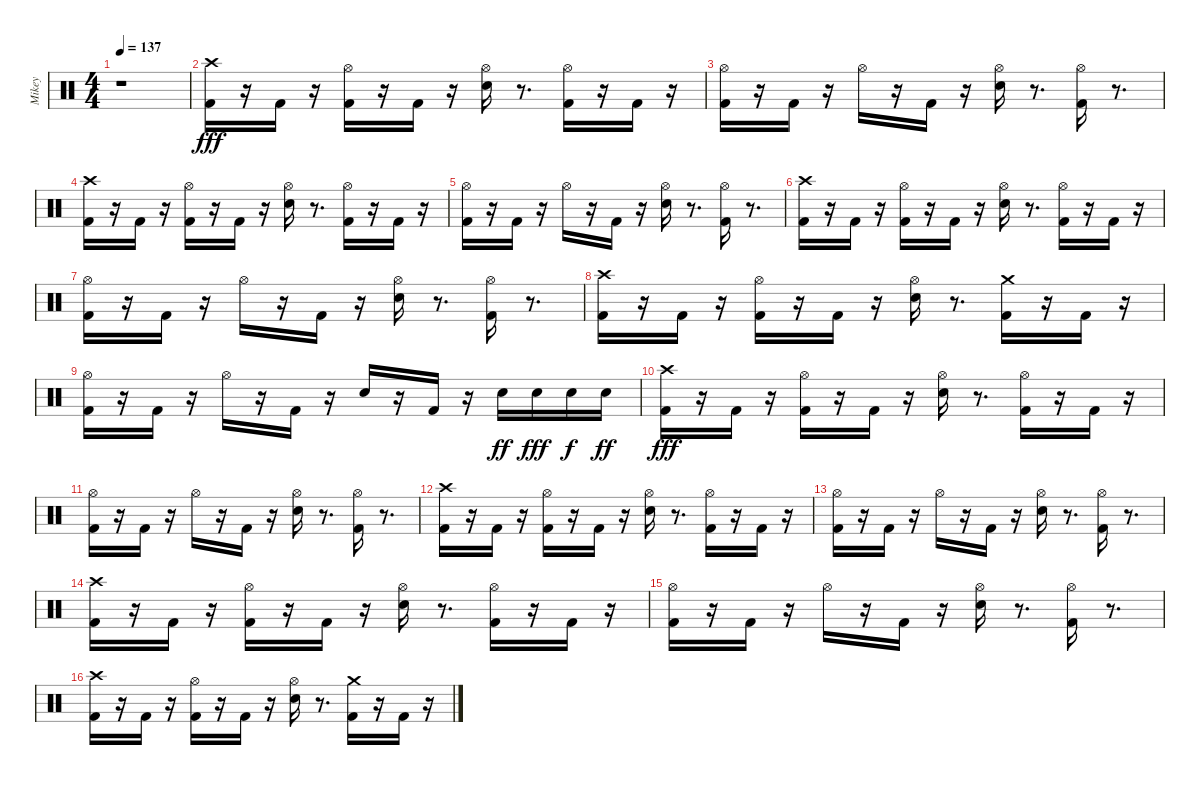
\track ("Mikey" "Mikey") {instrument percussion}
\staff {score}
\articulation defaults
\ts (4 4)
\tempo 137
\clef neutral
\ks c
r.1{dy f} |
("Kick (hit) 2" "Crash high (hit)").16{dy fff} r.16 "Kick (hit) 2".16 r.16 ("Hi-Hat (open)" "Kick (hit) 2").16 r.16 "Kick (hit) 2".16 r.16 ("Electric Snare (hit)" "Hi-Hat (open)").16 r.8{d} ("Hi-Hat (open)" "Kick (hit) 2").16 r.16 "Kick (hit) 2".16 r.16 |
("Hi-Hat (open)" "Kick (hit) 2").16 r.16 "Kick (hit) 2".16 r.16 "Hi-Hat (open)".16 r.16 "Kick (hit) 2".16 r.16 ("Hi-Hat (open)" "Electric Snare (hit)").16 r.8{d} ("Hi-Hat (open)" "Kick (hit) 2").16 r.8{d} |
("Kick (hit) 2" "Crash high (hit)").16 r.16 "Kick (hit) 2".16 r.16 ("Hi-Hat (open)" "Kick (hit) 2").16 r.16 "Kick (hit) 2".16 r.16 ("Electric Snare (hit)" "Hi-Hat (open)").16 r.8{d} ("Hi-Hat (open)" "Kick (hit) 2").16 r.16 "Kick (hit) 2".16 r.16 |
("Hi-Hat (open)" "Kick (hit) 2").16 r.16 "Kick (hit) 2".16 r.16 "Hi-Hat (open)".16 r.16 "Kick (hit) 2".16 r.16 ("Hi-Hat (open)" "Electric Snare (hit)").16 r.8{d} ("Hi-Hat (open)" "Kick (hit) 2").16 r.8{d} |
("Kick (hit) 2" "Crash high (hit)").16 r.16 "Kick (hit) 2".16 r.16 ("Hi-Hat (open)" "Kick (hit) 2").16 r.16 "Kick (hit) 2".16 r.16 ("Electric Snare (hit)" "Hi-Hat (open)").16 r.8{d} ("Hi-Hat (open)" "Kick (hit) 2").16 r.16 "Kick (hit) 2".16 r.16 |
("Hi-Hat (open)" "Kick (hit) 2").16 r.16 "Kick (hit) 2".16 r.16 "Hi-Hat (open)".16 r.16 "Kick (hit) 2".16 r.16 ("Hi-Hat (open)" "Electric Snare (hit)").16 r.8{d} ("Hi-Hat (open)" "Kick (hit) 2").16 r.8{d} |
("Kick (hit) 2" "Crash high (hit)").16 r.16 "Kick (hit) 2".16 r.16 ("Hi-Hat (open)" "Kick (hit) 2").16 r.16 "Kick (hit) 2".16 r.16 ("Electric Snare (hit)" "Hi-Hat (open)").16 r.8{d} ("Kick (hit) 2" "Crash medium (hit)").16 r.16 "Kick (hit) 2".16 r.16 |
("Hi-Hat (open)" "Kick (hit) 2").16 r.16 "Kick (hit) 2".16 r.16 "Hi-Hat (open)".16 r.16 "Kick (hit) 2".16 r.16 "Electric Snare (hit)".16 r.16 "Kick (hit) 2".16 r.16 "Electric Snare (hit)".16{dy ff} "Electric Snare (hit)".16{dy fff} "Electric Snare (hit)".16{dy f} "Electric Snare (hit)".16{dy ff} |
("Kick (hit) 2" "Crash high (hit)").16{dy fff} r.16 "Kick (hit) 2".16 r.16 ("Hi-Hat (open)" "Kick (hit) 2").16 r.16 "Kick (hit) 2".16 r.16 ("Electric Snare (hit)" "Hi-Hat (open)").16 r.8{d} ("Hi-Hat (open)" "Kick (hit) 2").16 r.16 "Kick (hit) 2".16 r.16 |
("Hi-Hat (open)" "Kick (hit) 2").16 r.16 "Kick (hit) 2".16 r.16 "Hi-Hat (open)".16 r.16 "Kick (hit) 2".16 r.16 ("Hi-Hat (open)" "Electric Snare (hit)").16 r.8{d} ("Hi-Hat (open)" "Kick (hit) 2").16 r.8{d} |
("Kick (hit) 2" "Crash high (hit)").16 r.16 "Kick (hit) 2".16 r.16 ("Hi-Hat (open)" "Kick (hit) 2").16 r.16 "Kick (hit) 2".16 r.16 ("Electric Snare (hit)" "Hi-Hat (open)").16 r.8{d} ("Hi-Hat (open)" "Kick (hit) 2").16 r.16 "Kick (hit) 2".16 r.16 |
("Hi-Hat (open)" "Kick (hit) 2").16 r.16 "Kick (hit) 2".16 r.16 "Hi-Hat (open)".16 r.16 "Kick (hit) 2".16 r.16 ("Hi-Hat (open)" "Electric Snare (hit)").16 r.8{d} ("Hi-Hat (open)" "Kick (hit) 2").16 r.8{d} |
("Kick (hit) 2" "Crash high (hit)").16 r.16 "Kick (hit) 2".16 r.16 ("Hi-Hat (open)" "Kick (hit) 2").16 r.16 "Kick (hit) 2".16 r.16 ("Electric Snare (hit)" "Hi-Hat (open)").16 r.8{d} ("Hi-Hat (open)" "Kick (hit) 2").16 r.16 "Kick (hit) 2".16 r.16 |
("Hi-Hat (open)" "Kick (hit) 2").16 r.16 "Kick (hit) 2".16 r.16 "Hi-Hat (open)".16 r.16 "Kick (hit) 2".16 r.16 ("Hi-Hat (open)" "Electric Snare (hit)").16 r.8{d} ("Hi-Hat (open)" "Kick (hit) 2").16 r.8{d} |
("Crash high (hit)" "Kick (hit) 2").16 r.16 "Kick (hit) 2".16 r.16 ("Kick (hit) 2" "Hi-Hat (open)").16 r.16 "Kick (hit) 2".16 r.16 ("Electric Snare (hit)" "Hi-Hat (open)").16 r.8{d} ("Crash medium (hit)" "Kick (hit) 2").16 r.16 "Kick (hit) 2".16 r.16
